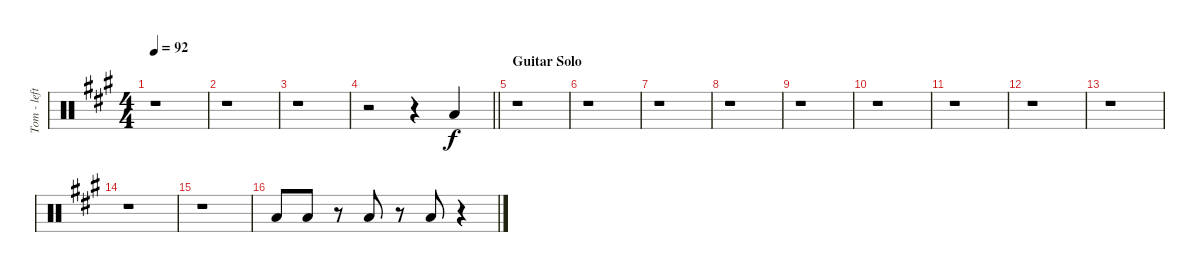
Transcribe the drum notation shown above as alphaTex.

\track ("Tom - left" "Tom - left") {instrument percussion}
\staff {score}
\articulation defaults
\ts (4 4)
\tempo 92
\clef neutral
\ks f#minor
r.1{dy f} |
r.1 |
r.1 |
\barLineRight lightlight
r.2 r.4 "Low Tom (hit)".4{beam Up} |
\section ("" "Guitar Solo")
r.1 |
r.1 |
r.1 |
r.1 |
r.1 |
r.1 |
r.1 |
r.1 |
r.1 |
r.1 |
r.1 |
"Low Tom (hit)".8{volume 11} "Low Tom (hit)".8 r.8 "Low Tom (hit)".8 r.8 "Low Tom (hit)".8 r.4
